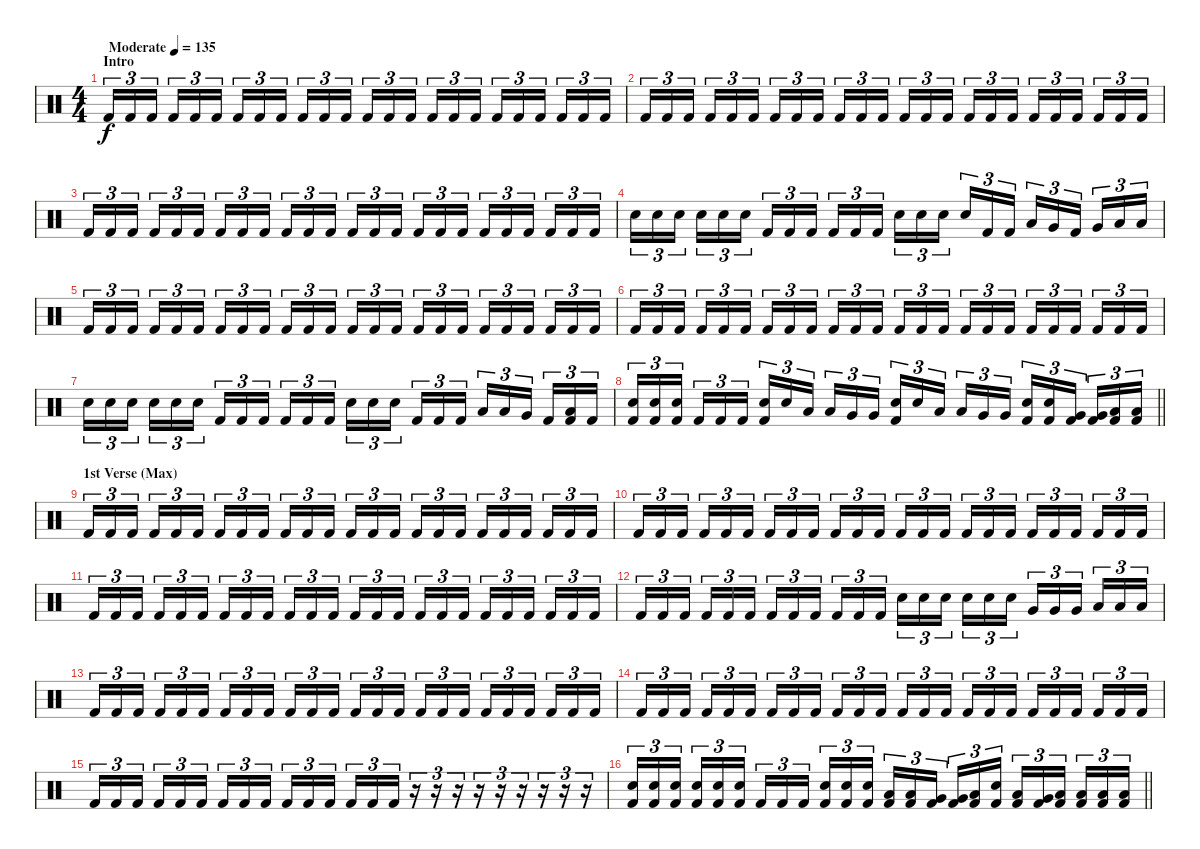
\track "" {instrument percussion}
\staff {score}
\articulation defaults
\ts (4 4)
\section ("" "Intro")
\tempo (135 "Moderate")
\clef neutral
\ks c "Kick (hit) 2".16{tu (3 2) dy f} "Kick (hit) 2".16{tu (3 2)} "Kick (hit) 2".16{tu (3 2) beam splitsecondary} "Kick (hit) 2".16{tu (3 2)} "Kick (hit) 2".16{tu (3 2)} "Kick (hit) 2".16{tu (3 2)} "Kick (hit) 2".16{tu (3 2)} "Kick (hit) 2".16{tu (3 2)} "Kick (hit) 2".16{tu (3 2) beam splitsecondary} "Kick (hit) 2".16{tu (3 2)} "Kick (hit) 2".16{tu (3 2)} "Kick (hit) 2".16{tu (3 2)} "Kick (hit) 2".16{tu (3 2)} "Kick (hit) 2".16{tu (3 2)} "Kick (hit) 2".16{tu (3 2) beam splitsecondary} "Kick (hit) 2".16{tu (3 2)} "Kick (hit) 2".16{tu (3 2)} "Kick (hit) 2".16{tu (3 2)} "Kick (hit) 2".16{tu (3 2)} "Kick (hit) 2".16{tu (3 2)} "Kick (hit) 2".16{tu (3 2) beam splitsecondary} "Kick (hit) 2".16{tu (3 2)} "Kick (hit) 2".16{tu (3 2)} "Kick (hit) 2".16{tu (3 2)}
|
"Kick (hit) 2".16{tu (3 2)} "Kick (hit) 2".16{tu (3 2)} "Kick (hit) 2".16{tu (3 2) beam splitsecondary} "Kick (hit) 2".16{tu (3 2)} "Kick (hit) 2".16{tu (3 2)} "Kick (hit) 2".16{tu (3 2)} "Kick (hit) 2".16{tu (3 2)} "Kick (hit) 2".16{tu (3 2)} "Kick (hit) 2".16{tu (3 2) beam splitsecondary} "Kick (hit) 2".16{tu (3 2)} "Kick (hit) 2".16{tu (3 2)} "Kick (hit) 2".16{tu (3 2)} "Kick (hit) 2".16{tu (3 2)} "Kick (hit) 2".16{tu (3 2)} "Kick (hit) 2".16{tu (3 2) beam splitsecondary} "Kick (hit) 2".16{tu (3 2)} "Kick (hit) 2".16{tu (3 2)} "Kick (hit) 2".16{tu (3 2)} "Kick (hit) 2".16{tu (3 2)} "Kick (hit) 2".16{tu (3 2)} "Kick (hit) 2".16{tu (3 2) beam splitsecondary} "Kick (hit) 2".16{tu (3 2)} "Kick (hit) 2".16{tu (3 2)} "Kick (hit) 2".16{tu (3 2)} |
"Kick (hit) 2".16{tu (3 2)} "Kick (hit) 2".16{tu (3 2)} "Kick (hit) 2".16{tu (3 2) beam splitsecondary} "Kick (hit) 2".16{tu (3 2)} "Kick (hit) 2".16{tu (3 2)} "Kick (hit) 2".16{tu (3 2)} "Kick (hit) 2".16{tu (3 2)} "Kick (hit) 2".16{tu (3 2)} "Kick (hit) 2".16{tu (3 2) beam splitsecondary} "Kick (hit) 2".16{tu (3 2)} "Kick (hit) 2".16{tu (3 2)} "Kick (hit) 2".16{tu (3 2)} "Kick (hit) 2".16{tu (3 2)} "Kick (hit) 2".16{tu (3 2)} "Kick (hit) 2".16{tu (3 2) beam splitsecondary} "Kick (hit) 2".16{tu (3 2)} "Kick (hit) 2".16{tu (3 2)} "Kick (hit) 2".16{tu (3 2)} "Kick (hit) 2".16{tu (3 2)} "Kick (hit) 2".16{tu (3 2)} "Kick (hit) 2".16{tu (3 2) beam splitsecondary} "Kick (hit) 2".16{tu (3 2)} "Kick (hit) 2".16{tu (3 2)} "Kick (hit) 2".16{tu (3 2)} |
"Snare (hit) 2".16{tu (3 2)} "Snare (hit) 2".16{tu (3 2)} "Snare (hit) 2".16{tu (3 2) beam splitsecondary} "Snare (hit) 2".16{tu (3 2)} "Snare (hit) 2".16{tu (3 2)} "Snare (hit) 2".16{tu (3 2)} "Kick (hit) 2".16{tu (3 2)} "Kick (hit) 2".16{tu (3 2)} "Kick (hit) 2".16{tu (3 2) beam splitsecondary} "Kick (hit) 2".16{tu (3 2)} "Kick (hit) 2".16{tu (3 2)} "Kick (hit) 2".16{tu (3 2)} "Snare (hit) 2".16{tu (3 2)} "Snare (hit) 2".16{tu (3 2)} "Snare (hit) 2".16{tu (3 2) beam splitsecondary} "Snare (hit) 2".16{tu (3 2)} "Kick (hit) 2".16{tu (3 2)} "Kick (hit) 2".16{tu (3 2)} "Low Tom (hit)".16{tu (3 2)} "Very Low Tom (hit)".16{tu (3 2)} "Kick (hit) 2".16{tu (3 2) beam splitsecondary} "Very Low Tom (hit)".16{tu (3 2)} "Low Floor Tom (hit)".16{tu (3 2)} "Low Floor Tom (hit)".16{tu (3 2)} |
"Kick (hit) 2".16{tu (3 2)} "Kick (hit) 2".16{tu (3 2)} "Kick (hit) 2".16{tu (3 2) beam splitsecondary} "Kick (hit) 2".16{tu (3 2)} "Kick (hit) 2".16{tu (3 2)} "Kick (hit) 2".16{tu (3 2)} "Kick (hit) 2".16{tu (3 2)} "Kick (hit) 2".16{tu (3 2)} "Kick (hit) 2".16{tu (3 2) beam splitsecondary} "Kick (hit) 2".16{tu (3 2)} "Kick (hit) 2".16{tu (3 2)} "Kick (hit) 2".16{tu (3 2)} "Kick (hit) 2".16{tu (3 2)} "Kick (hit) 2".16{tu (3 2)} "Kick (hit) 2".16{tu (3 2) beam splitsecondary} "Kick (hit) 2".16{tu (3 2)} "Kick (hit) 2".16{tu (3 2)} "Kick (hit) 2".16{tu (3 2)} "Kick (hit) 2".16{tu (3 2)} "Kick (hit) 2".16{tu (3 2)} "Kick (hit) 2".16{tu (3 2) beam splitsecondary} "Kick (hit) 2".16{tu (3 2)} "Kick (hit) 2".16{tu (3 2)} "Kick (hit) 2".16{tu (3 2)} |
"Kick (hit) 2".16{tu (3 2)} "Kick (hit) 2".16{tu (3 2)} "Kick (hit) 2".16{tu (3 2) beam splitsecondary} "Kick (hit) 2".16{tu (3 2)} "Kick (hit) 2".16{tu (3 2)} "Kick (hit) 2".16{tu (3 2)} "Kick (hit) 2".16{tu (3 2)} "Kick (hit) 2".16{tu (3 2)} "Kick (hit) 2".16{tu (3 2) beam splitsecondary} "Kick (hit) 2".16{tu (3 2)} "Kick (hit) 2".16{tu (3 2)} "Kick (hit) 2".16{tu (3 2)} "Kick (hit) 2".16{tu (3 2)} "Kick (hit) 2".16{tu (3 2)} "Kick (hit) 2".16{tu (3 2) beam splitsecondary} "Kick (hit) 2".16{tu (3 2)} "Kick (hit) 2".16{tu (3 2)} "Kick (hit) 2".16{tu (3 2)} "Kick (hit) 2".16{tu (3 2)} "Kick (hit) 2".16{tu (3 2)} "Kick (hit) 2".16{tu (3 2) beam splitsecondary} "Kick (hit) 2".16{tu (3 2)} "Kick (hit) 2".16{tu (3 2)} "Kick (hit) 2".16{tu (3 2)} |
"Snare (hit) 2".16{tu (3 2)} "Snare (hit) 2".16{tu (3 2)} "Snare (hit) 2".16{tu (3 2) beam splitsecondary} "Snare (hit) 2".16{tu (3 2)} "Snare (hit) 2".16{tu (3 2)} "Snare (hit) 2".16{tu (3 2)} "Kick (hit) 2".16{tu (3 2)} "Kick (hit) 2".16{tu (3 2)} "Kick (hit) 2".16{tu (3 2) beam splitsecondary} "Kick (hit) 2".16{tu (3 2)} "Kick (hit) 2".16{tu (3 2)} "Kick (hit) 2".16{tu (3 2)} "Snare (hit) 2".16{tu (3 2)} "Snare (hit) 2".16{tu (3 2)} "Snare (hit) 2".16{tu (3 2) beam splitsecondary} "Kick (hit) 2".16{tu (3 2)} "Kick (hit) 2".16{tu (3 2)} "Kick (hit) 2".16{tu (3 2)} "Low Tom (hit)".16{tu (3 2)} "Low Tom (hit)".16{tu (3 2)} "Very Low Tom (hit)".16{tu (3 2) beam splitsecondary} "Kick (hit) 2".16{tu (3 2)} ("Low Floor Tom (hit)" "Kick (hit) 2").16{tu (3 2)} "Kick (hit) 2".16{tu (3 2)} |
\barLineRight lightlight
("Snare (hit) 2" "Kick (hit) 2").16{tu (3 2)} ("Snare (hit) 2" "Kick (hit) 2").16{tu (3 2)} ("Snare (hit) 2" "Kick (hit) 2").16{tu (3 2) beam splitsecondary} "Kick (hit) 2".16{tu (3 2)} "Kick (hit) 2".16{tu (3 2)} "Kick (hit) 2".16{tu (3 2)} ("Snare (hit) 2" "Kick (hit) 2").16{tu (3 2)} "Snare (hit) 2".16{tu (3 2)} "Low Tom (hit)".16{tu (3 2) beam splitsecondary} "Low Tom (hit)".16{tu (3 2)} "Very Low Tom (hit)".16{tu (3 2)} "Very Low Tom (hit)".16{tu (3 2)} ("Snare (hit) 2" "Kick (hit) 2").16{tu (3 2)} "Snare (hit) 2".16{tu (3 2)} "Low Tom (hit)".16{tu (3 2) beam splitsecondary} "Low Tom (hit)".16{tu (3 2)} "Very Low Tom (hit)".16{tu (3 2)} "Very Low Tom (hit)".16{tu (3 2)} ("Snare (hit) 2" "Kick (hit) 2").16{tu (3 2)} ("Snare (hit) 2" "Kick (hit) 2").16{tu (3 2)} ("Very Low Tom (hit)" "Kick (hit) 2").16{tu (3 2) beam splitsecondary} ("Very Low Tom (hit)" "Kick (hit) 2").16{tu (3 2)} ("Low Floor Tom (hit)" "Kick (hit) 2").16{tu (3 2)} ("Low Floor Tom (hit)" "Kick (hit) 2").16{tu (3 2)} |
\section ("" "1st Verse (Max)")
"Kick (hit) 2".16{tu (3 2)} "Kick (hit) 2".16{tu (3 2)} "Kick (hit) 2".16{tu (3 2) beam splitsecondary} "Kick (hit) 2".16{tu (3 2)} "Kick (hit) 2".16{tu (3 2)} "Kick (hit) 2".16{tu (3 2)} "Kick (hit) 2".16{tu (3 2)} "Kick (hit) 2".16{tu (3 2)} "Kick (hit) 2".16{tu (3 2) beam splitsecondary} "Kick (hit) 2".16{tu (3 2)} "Kick (hit) 2".16{tu (3 2)} "Kick (hit) 2".16{tu (3 2)} "Kick (hit) 2".16{tu (3 2)} "Kick (hit) 2".16{tu (3 2)} "Kick (hit) 2".16{tu (3 2) beam splitsecondary} "Kick (hit) 2".16{tu (3 2)} "Kick (hit) 2".16{tu (3 2)} "Kick (hit) 2".16{tu (3 2)} "Kick (hit) 2".16{tu (3 2)} "Kick (hit) 2".16{tu (3 2)} "Kick (hit) 2".16{tu (3 2) beam splitsecondary} "Kick (hit) 2".16{tu (3 2)} "Kick (hit) 2".16{tu (3 2)} "Kick (hit) 2".16{tu (3 2)} |
"Kick (hit) 2".16{tu (3 2)} "Kick (hit) 2".16{tu (3 2)} "Kick (hit) 2".16{tu (3 2) beam splitsecondary} "Kick (hit) 2".16{tu (3 2)} "Kick (hit) 2".16{tu (3 2)} "Kick (hit) 2".16{tu (3 2)} "Kick (hit) 2".16{tu (3 2)} "Kick (hit) 2".16{tu (3 2)} "Kick (hit) 2".16{tu (3 2) beam splitsecondary} "Kick (hit) 2".16{tu (3 2)} "Kick (hit) 2".16{tu (3 2)} "Kick (hit) 2".16{tu (3 2)} "Kick (hit) 2".16{tu (3 2)} "Kick (hit) 2".16{tu (3 2)} "Kick (hit) 2".16{tu (3 2) beam splitsecondary} "Kick (hit) 2".16{tu (3 2)} "Kick (hit) 2".16{tu (3 2)} "Kick (hit) 2".16{tu (3 2)} "Kick (hit) 2".16{tu (3 2)} "Kick (hit) 2".16{tu (3 2)} "Kick (hit) 2".16{tu (3 2) beam splitsecondary} "Kick (hit) 2".16{tu (3 2)} "Kick (hit) 2".16{tu (3 2)} "Kick (hit) 2".16{tu (3 2)} |
"Kick (hit) 2".16{tu (3 2)} "Kick (hit) 2".16{tu (3 2)} "Kick (hit) 2".16{tu (3 2) beam splitsecondary} "Kick (hit) 2".16{tu (3 2)} "Kick (hit) 2".16{tu (3 2)} "Kick (hit) 2".16{tu (3 2)} "Kick (hit) 2".16{tu (3 2)} "Kick (hit) 2".16{tu (3 2)} "Kick (hit) 2".16{tu (3 2) beam splitsecondary} "Kick (hit) 2".16{tu (3 2)} "Kick (hit) 2".16{tu (3 2)} "Kick (hit) 2".16{tu (3 2)} "Kick (hit) 2".16{tu (3 2)} "Kick (hit) 2".16{tu (3 2)} "Kick (hit) 2".16{tu (3 2) beam splitsecondary} "Kick (hit) 2".16{tu (3 2)} "Kick (hit) 2".16{tu (3 2)} "Kick (hit) 2".16{tu (3 2)} "Kick (hit) 2".16{tu (3 2)} "Kick (hit) 2".16{tu (3 2)} "Kick (hit) 2".16{tu (3 2) beam splitsecondary} "Kick (hit) 2".16{tu (3 2)} "Kick (hit) 2".16{tu (3 2)} "Kick (hit) 2".16{tu (3 2)} |
"Kick (hit) 2".16{tu (3 2)} "Kick (hit) 2".16{tu (3 2)} "Kick (hit) 2".16{tu (3 2) beam splitsecondary} "Kick (hit) 2".16{tu (3 2)} "Kick (hit) 2".16{tu (3 2)} "Kick (hit) 2".16{tu (3 2)} "Kick (hit) 2".16{tu (3 2)} "Kick (hit) 2".16{tu (3 2)} "Kick (hit) 2".16{tu (3 2) beam splitsecondary} "Kick (hit) 2".16{tu (3 2)} "Kick (hit) 2".16{tu (3 2)} "Kick (hit) 2".16{tu (3 2)} "Snare (hit) 2".16{tu (3 2)} "Snare (hit) 2".16{tu (3 2)} "Snare (hit) 2".16{tu (3 2) beam splitsecondary} "Snare (hit) 2".16{tu (3 2)} "Snare (hit) 2".16{tu (3 2)} "Snare (hit) 2".16{tu (3 2)} "Very Low Tom (hit)".16{tu (3 2)} "Very Low Tom (hit)".16{tu (3 2)} "Very Low Tom (hit)".16{tu (3 2) beam splitsecondary} "Low Floor Tom (hit)".16{tu (3 2)} "Low Floor Tom (hit)".16{tu (3 2)} "Low Floor Tom (hit)".16{tu (3 2)} |
"Kick (hit) 2".16{tu (3 2)} "Kick (hit) 2".16{tu (3 2)} "Kick (hit) 2".16{tu (3 2) beam splitsecondary} "Kick (hit) 2".16{tu (3 2)} "Kick (hit) 2".16{tu (3 2)} "Kick (hit) 2".16{tu (3 2)} "Kick (hit) 2".16{tu (3 2)} "Kick (hit) 2".16{tu (3 2)} "Kick (hit) 2".16{tu (3 2) beam splitsecondary} "Kick (hit) 2".16{tu (3 2)} "Kick (hit) 2".16{tu (3 2)} "Kick (hit) 2".16{tu (3 2)} "Kick (hit) 2".16{tu (3 2)} "Kick (hit) 2".16{tu (3 2)} "Kick (hit) 2".16{tu (3 2) beam splitsecondary} "Kick (hit) 2".16{tu (3 2)} "Kick (hit) 2".16{tu (3 2)} "Kick (hit) 2".16{tu (3 2)} "Kick (hit) 2".16{tu (3 2)} "Kick (hit) 2".16{tu (3 2)} "Kick (hit) 2".16{tu (3 2) beam splitsecondary} "Kick (hit) 2".16{tu (3 2)} "Kick (hit) 2".16{tu (3 2)} "Kick (hit) 2".16{tu (3 2)} |
"Kick (hit) 2".16{tu (3 2)} "Kick (hit) 2".16{tu (3 2)} "Kick (hit) 2".16{tu (3 2) beam splitsecondary} "Kick (hit) 2".16{tu (3 2)} "Kick (hit) 2".16{tu (3 2)} "Kick (hit) 2".16{tu (3 2)} "Kick (hit) 2".16{tu (3 2)} "Kick (hit) 2".16{tu (3 2)} "Kick (hit) 2".16{tu (3 2) beam splitsecondary} "Kick (hit) 2".16{tu (3 2)} "Kick (hit) 2".16{tu (3 2)} "Kick (hit) 2".16{tu (3 2)} "Kick (hit) 2".16{tu (3 2)} "Kick (hit) 2".16{tu (3 2)} "Kick (hit) 2".16{tu (3 2) beam splitsecondary} "Kick (hit) 2".16{tu (3 2)} "Kick (hit) 2".16{tu (3 2)} "Kick (hit) 2".16{tu (3 2)} "Kick (hit) 2".16{tu (3 2)} "Kick (hit) 2".16{tu (3 2)} "Kick (hit) 2".16{tu (3 2) beam splitsecondary} "Kick (hit) 2".16{tu (3 2)} "Kick (hit) 2".16{tu (3 2)} "Kick (hit) 2".16{tu (3 2)} |
"Kick (hit) 2".16{tu (3 2)} "Kick (hit) 2".16{tu (3 2)} "Kick (hit) 2".16{tu (3 2) beam splitsecondary} "Kick (hit) 2".16{tu (3 2)} "Kick (hit) 2".16{tu (3 2)} "Kick (hit) 2".16{tu (3 2)} "Kick (hit) 2".16{tu (3 2)} "Kick (hit) 2".16{tu (3 2)} "Kick (hit) 2".16{tu (3 2) beam splitsecondary} "Kick (hit) 2".16{tu (3 2)} "Kick (hit) 2".16{tu (3 2)} "Kick (hit) 2".16{tu (3 2)} "Kick (hit) 2".16{tu (3 2)} "Kick (hit) 2".16{tu (3 2)} "Kick (hit) 2".16{tu (3 2)} r.16{tu (3 2)} r.16{tu (3 2)} r.16{tu (3 2)} r.16{tu (3 2)} r.16{tu (3 2)} r.16{tu (3 2)} r.16{tu (3 2)} r.16{tu (3 2)} r.16{tu (3 2)} |
\barLineRight lightlight
("Snare (hit) 2" "Kick (hit) 2").16{tu (3 2)} ("Snare (hit) 2" "Kick (hit) 2").16{tu (3 2)} ("Snare (hit) 2" "Kick (hit) 2").16{tu (3 2) beam splitsecondary} ("Snare (hit) 2" "Kick (hit) 2").16{tu (3 2)} ("Snare (hit) 2" "Kick (hit) 2").16{tu (3 2)} ("Snare (hit) 2" "Kick (hit) 2").16{tu (3 2)} "Kick (hit) 2".16{tu (3 2)} "Kick (hit) 2".16{tu (3 2)} "Kick (hit) 2".16{tu (3 2) beam splitsecondary} ("Snare (hit) 2" "Kick (hit) 2").16{tu (3 2)} ("Snare (hit) 2" "Kick (hit) 2").16{tu (3 2)} ("Snare (hit) 2" "Kick (hit) 2").16{tu (3 2)} ("Low Tom (hit)" "Kick (hit) 2").16{tu (3 2)} ("Low Tom (hit)" "Kick (hit) 2").16{tu (3 2)} ("Very Low Tom (hit)" "Kick (hit) 2").16{tu (3 2) beam splitsecondary} ("Very Low Tom (hit)" "Kick (hit) 2").16{tu (3 2)} ("Low Floor Tom (hit)" "Kick (hit) 2").16{tu (3 2)} ("Snare (hit) 2" "Kick (hit) 2").16{tu (3 2)} ("Low Tom (hit)" "Kick (hit) 2").16{tu (3 2)} ("Very Low Tom (hit)" "Kick (hit) 2").16{tu (3 2)} ("Low Floor Tom (hit)" "Kick (hit) 2").16{tu (3 2) beam splitsecondary} ("Low Floor Tom (hit)" "Kick (hit) 2").16{tu (3 2)} ("Low Floor Tom (hit)" "Kick (hit) 2").16{tu (3 2)} ("Low Floor Tom (hit)" "Kick (hit) 2").16{tu (3 2)}
